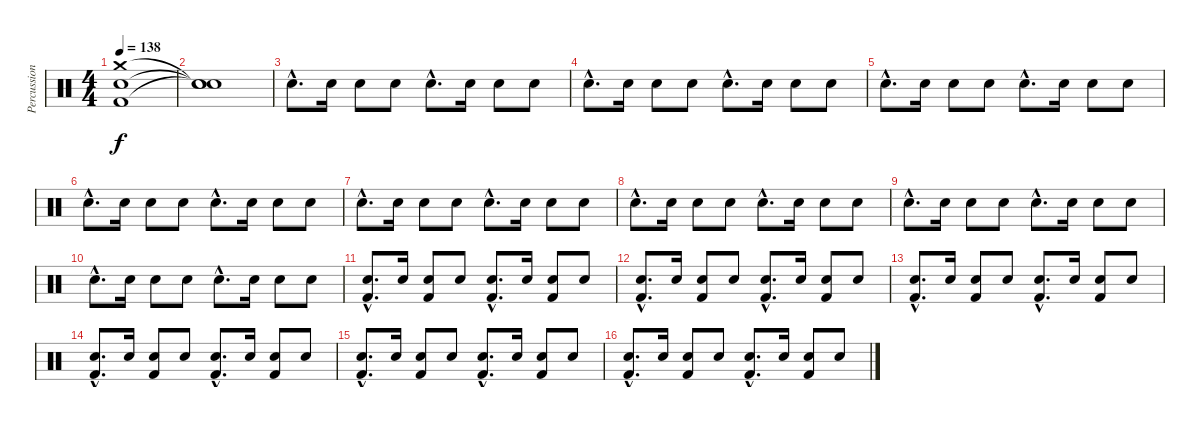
\track ("Percussion" "Percussion") {instrument percussion}
\staff {score}
\articulation defaults
\ts (4 4)
\tempo 138
\clef neutral
\ks c
("Crash medium (hit)" "Electric Snare (hit)" "Kick (hit) 2").1{dy f} |
("Snare (hit)"{t} "Snare (hit)"{t} "Snare (hit)"{t}).1 |
"Electric Snare (hit)"{hac}.8{d} "Electric Snare (hit)".16 "Electric Snare (hit)".8 "Electric Snare (hit)".8 "Electric Snare (hit)"{hac}.8{d} "Electric Snare (hit)".16 "Electric Snare (hit)".8 "Electric Snare (hit)".8 |
"Electric Snare (hit)"{hac}.8{d} "Electric Snare (hit)".16 "Electric Snare (hit)".8 "Electric Snare (hit)".8 "Electric Snare (hit)"{hac}.8{d} "Electric Snare (hit)".16 "Electric Snare (hit)".8 "Electric Snare (hit)".8 |
"Electric Snare (hit)"{hac}.8{d} "Electric Snare (hit)".16 "Electric Snare (hit)".8 "Electric Snare (hit)".8 "Electric Snare (hit)"{hac}.8{d} "Electric Snare (hit)".16 "Electric Snare (hit)".8 "Electric Snare (hit)".8 |
"Electric Snare (hit)"{hac}.8{d} "Electric Snare (hit)".16 "Electric Snare (hit)".8 "Electric Snare (hit)".8 "Electric Snare (hit)"{hac}.8{d} "Electric Snare (hit)".16 "Electric Snare (hit)".8 "Electric Snare (hit)".8 |
"Electric Snare (hit)"{hac}.8{d} "Electric Snare (hit)".16 "Electric Snare (hit)".8 "Electric Snare (hit)".8 "Electric Snare (hit)"{hac}.8{d} "Electric Snare (hit)".16 "Electric Snare (hit)".8 "Electric Snare (hit)".8 |
"Electric Snare (hit)"{hac}.8{d} "Electric Snare (hit)".16 "Electric Snare (hit)".8 "Electric Snare (hit)".8 "Electric Snare (hit)"{hac}.8{d} "Electric Snare (hit)".16 "Electric Snare (hit)".8 "Electric Snare (hit)".8 |
"Electric Snare (hit)"{hac}.8{d} "Electric Snare (hit)".16 "Electric Snare (hit)".8 "Electric Snare (hit)".8 "Electric Snare (hit)"{hac}.8{d} "Electric Snare (hit)".16 "Electric Snare (hit)".8 "Electric Snare (hit)".8 |
"Electric Snare (hit)"{hac}.8{d} "Electric Snare (hit)".16 "Electric Snare (hit)".8 "Electric Snare (hit)".8 "Electric Snare (hit)"{hac}.8{d} "Electric Snare (hit)".16 "Electric Snare (hit)".8 "Electric Snare (hit)".8 |
("Electric Snare (hit)"{hac} "Kick (hit) 2"{hac}).8{d} "Electric Snare (hit)".16 ("Electric Snare (hit)" "Kick (hit) 2").8 "Electric Snare (hit)".8 ("Electric Snare (hit)"{hac} "Kick (hit) 2"{hac}).8{d} "Electric Snare (hit)".16 ("Electric Snare (hit)" "Kick (hit) 2").8 "Electric Snare (hit)".8 |
("Electric Snare (hit)"{hac} "Kick (hit) 2"{hac}).8{d} "Electric Snare (hit)".16 ("Electric Snare (hit)" "Kick (hit) 2").8 "Electric Snare (hit)".8 ("Electric Snare (hit)"{hac} "Kick (hit) 2"{hac}).8{d} "Electric Snare (hit)".16 ("Electric Snare (hit)" "Kick (hit) 2").8 "Electric Snare (hit)".8 |
("Electric Snare (hit)"{hac} "Kick (hit) 2"{hac}).8{d} "Electric Snare (hit)".16 ("Electric Snare (hit)" "Kick (hit) 2").8 "Electric Snare (hit)".8 ("Electric Snare (hit)"{hac} "Kick (hit) 2"{hac}).8{d} "Electric Snare (hit)".16 ("Electric Snare (hit)" "Kick (hit) 2").8 "Electric Snare (hit)".8 |
("Electric Snare (hit)"{hac} "Kick (hit) 2"{hac}).8{d} "Electric Snare (hit)".16 ("Electric Snare (hit)" "Kick (hit) 2").8 "Electric Snare (hit)".8 ("Electric Snare (hit)"{hac} "Kick (hit) 2"{hac}).8{d} "Electric Snare (hit)".16 ("Electric Snare (hit)" "Kick (hit) 2").8 "Electric Snare (hit)".8 |
("Electric Snare (hit)"{hac} "Kick (hit) 2"{hac}).8{d} "Electric Snare (hit)".16 ("Electric Snare (hit)" "Kick (hit) 2").8 "Electric Snare (hit)".8 ("Electric Snare (hit)"{hac} "Kick (hit) 2"{hac}).8{d} "Electric Snare (hit)".16 ("Electric Snare (hit)" "Kick (hit) 2").8 "Electric Snare (hit)".8 |
("Electric Snare (hit)"{hac} "Kick (hit) 2"{hac}).8{d} "Electric Snare (hit)".16 ("Electric Snare (hit)" "Kick (hit) 2").8 "Electric Snare (hit)".8 ("Electric Snare (hit)"{hac} "Kick (hit) 2"{hac}).8{d} "Electric Snare (hit)".16 ("Electric Snare (hit)" "Kick (hit) 2").8 "Electric Snare (hit)".8
